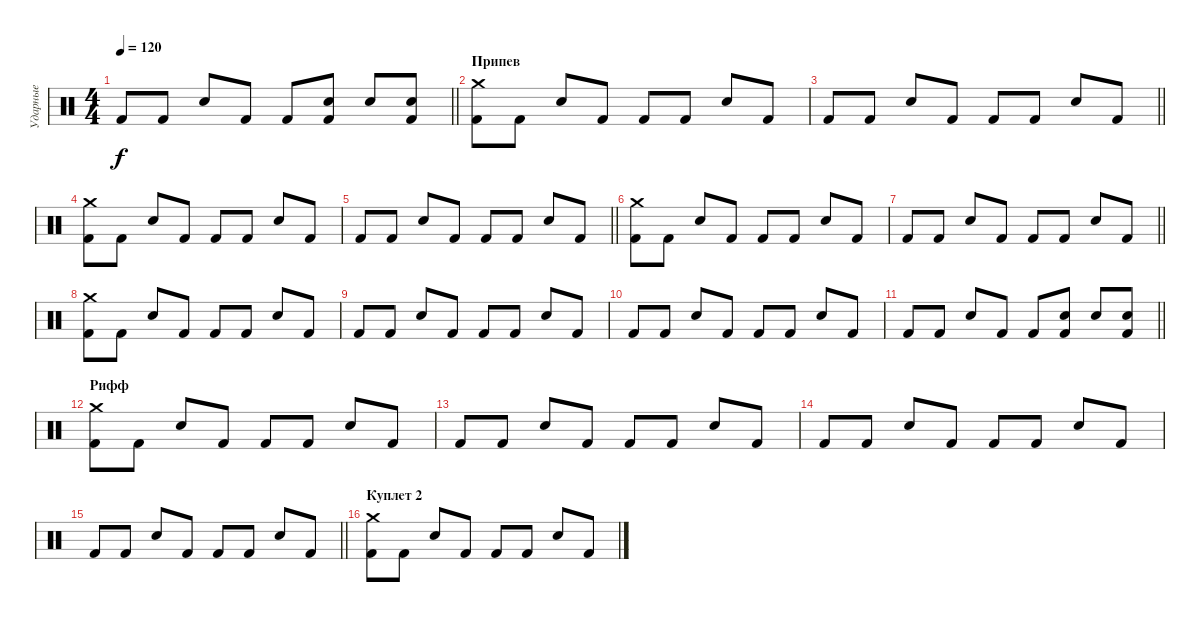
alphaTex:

\track ("Ударные" "Ударные") {instrument percussion}
\staff {score}
\articulation defaults
\ts (4 4)
\tempo 120
\clef neutral
\barLineRight lightlight
\ks c "Kick (hit) 2".8{dy f} "Kick (hit) 2".8 "Snare (hit) 2".8 "Kick (hit) 2".8 "Kick (hit) 2".8
("Snare (hit) 2" "Kick (hit) 2").8 "Snare (hit) 2".8 ("Snare (hit) 2" "Kick (hit) 2").8 |
\section ("" "Припев")
("Kick (hit) 2" "Crash medium (hit)").8 "Kick (hit) 2".8 "Snare (hit) 2".8 "Kick (hit) 2".8 "Kick (hit) 2".8 "Kick (hit) 2".8 "Snare (hit) 2".8 "Kick (hit) 2".8 |
\barLineRight lightlight "Kick (hit) 2".8 "Kick (hit) 2".8 "Snare (hit) 2".8 "Kick (hit) 2".8 "Kick (hit) 2".8 "Kick (hit) 2".8 "Snare (hit) 2".8 "Kick (hit) 2".8
|
("Kick (hit) 2" "Crash medium (hit)").8 "Kick (hit) 2".8 "Snare (hit) 2".8 "Kick (hit) 2".8 "Kick (hit) 2".8 "Kick (hit) 2".8 "Snare (hit) 2".8 "Kick (hit) 2".8 |
\barLineRight lightlight "Kick (hit) 2".8 "Kick (hit) 2".8 "Snare (hit) 2".8 "Kick (hit) 2".8 "Kick (hit) 2".8 "Kick (hit) 2".8 "Snare (hit) 2".8 "Kick (hit) 2".8
|
("Kick (hit) 2" "Crash medium (hit)").8 "Kick (hit) 2".8 "Snare (hit) 2".8 "Kick (hit) 2".8 "Kick (hit) 2".8 "Kick (hit) 2".8 "Snare (hit) 2".8 "Kick (hit) 2".8 |
\barLineRight lightlight "Kick (hit) 2".8 "Kick (hit) 2".8 "Snare (hit) 2".8 "Kick (hit) 2".8 "Kick (hit) 2".8 "Kick (hit) 2".8 "Snare (hit) 2".8 "Kick (hit) 2".8
|
("Kick (hit) 2" "Crash medium (hit)").8 "Kick (hit) 2".8 "Snare (hit) 2".8 "Kick (hit) 2".8 "Kick (hit) 2".8 "Kick (hit) 2".8 "Snare (hit) 2".8 "Kick (hit) 2".8 |
"Kick (hit) 2".8 "Kick (hit) 2".8 "Snare (hit) 2".8 "Kick (hit) 2".8 "Kick (hit) 2".8 "Kick (hit) 2".8 "Snare (hit) 2".8 "Kick (hit) 2".8 |
"Kick (hit) 2".8 "Kick (hit) 2".8 "Snare (hit) 2".8 "Kick (hit) 2".8 "Kick (hit) 2".8 "Kick (hit) 2".8 "Snare (hit) 2".8 "Kick (hit) 2".8 |
\barLineRight lightlight "Kick (hit) 2".8 "Kick (hit) 2".8 "Snare (hit) 2".8 "Kick (hit) 2".8 "Kick (hit) 2".8
("Snare (hit) 2" "Kick (hit) 2").8 "Snare (hit) 2".8 ("Snare (hit) 2" "Kick (hit) 2").8 |
\section ("" "Рифф")
("Kick (hit) 2" "Crash medium (hit)").8 "Kick (hit) 2".8 "Snare (hit) 2".8 "Kick (hit) 2".8 "Kick (hit) 2".8 "Kick (hit) 2".8 "Snare (hit) 2".8 "Kick (hit) 2".8 |
"Kick (hit) 2".8 "Kick (hit) 2".8 "Snare (hit) 2".8 "Kick (hit) 2".8 "Kick (hit) 2".8 "Kick (hit) 2".8 "Snare (hit) 2".8 "Kick (hit) 2".8 |
"Kick (hit) 2".8 "Kick (hit) 2".8 "Snare (hit) 2".8 "Kick (hit) 2".8 "Kick (hit) 2".8 "Kick (hit) 2".8 "Snare (hit) 2".8 "Kick (hit) 2".8 |
\barLineRight lightlight "Kick (hit) 2".8 "Kick (hit) 2".8 "Snare (hit) 2".8 "Kick (hit) 2".8 "Kick (hit) 2".8 "Kick (hit) 2".8 "Snare (hit) 2".8 "Kick (hit) 2".8
|
\section ("" "Куплет 2")
("Kick (hit) 2" "Crash medium (hit)").8 "Kick (hit) 2".8 "Snare (hit) 2".8 "Kick (hit) 2".8 "Kick (hit) 2".8 "Kick (hit) 2".8 "Snare (hit) 2".8 "Kick (hit) 2".8
